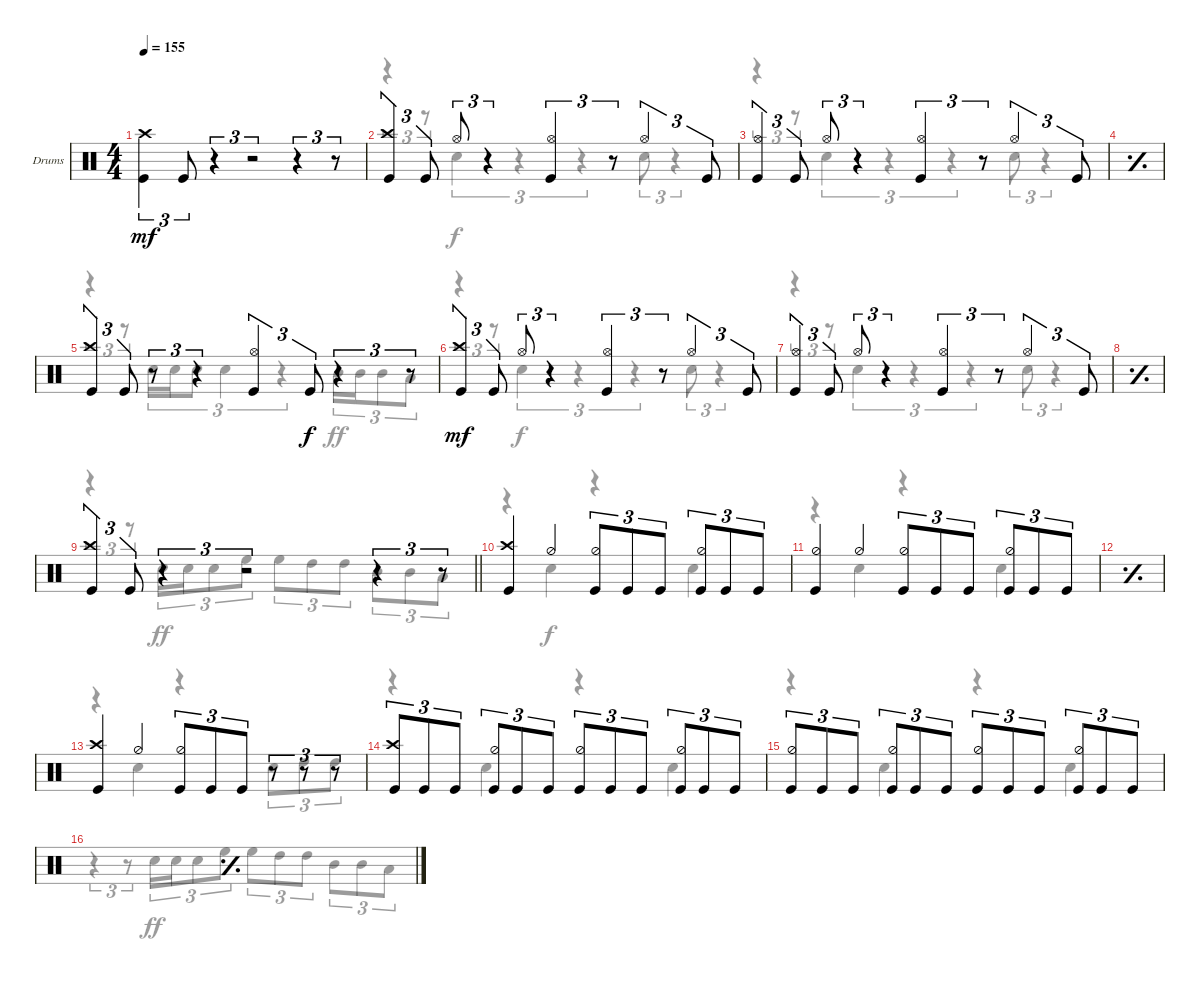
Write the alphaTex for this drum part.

\defaultSystemsLayout 4
\bracketExtendMode groupsimilarinstruments
\firstSystemTrackNameOrientation horizontal
\otherSystemsTrackNameOrientation horizontal
\track ("Drumkit" "Drums") {instrument percussion}
\staff {score}
\articulation defaults
\voice
\ts (4 4)
\tempo 155
\clef neutral
\ks c
("Kick (hit)" "Crash high (hit)").4{tu (3 2) dy mf} "Kick (hit)".8{tu (3 2)} r.4{tu (3 2)} r.2{tu (3 2)} r.4{tu (3 2)} r.8{tu (3 2)} |
("Kick (hit)" "Crash high (hit)").4{tu (3 2)} "Kick (hit)".8{tu (3 2)} "Hi-Hat (open)".8{tu (3 2)} r.4{tu (3 2)} ("Kick (hit)" "Hi-Hat (open)").4{tu (3 2)} r.8{tu (3 2)} "Hi-Hat (open)".4{tu (3 2)} "Kick (hit)".8{tu (3 2)} |
("Kick (hit)" "Hi-Hat (open)").4{tu (3 2)} "Kick (hit)".8{tu (3 2)} "Hi-Hat (open)".8{tu (3 2)} r.4{tu (3 2)} ("Kick (hit)" "Hi-Hat (open)").4{tu (3 2)} r.8{tu (3 2)} "Hi-Hat (open)".4{tu (3 2)} "Kick (hit)".8{tu (3 2)} |
\simile simple
|
\simile none
("Kick (hit)" "Crash high (hit)").4{tu (3 2)} "Kick (hit)".8{tu (3 2)} r.8{tu (3 2)} r.4{tu (3 2)} ("Kick (hit)" "Hi-Hat (open)").4{tu (3 2)} "Kick (hit)".8{tu (3 2) dy f} r.4{tu (3 2)} r.8{tu (3 2)} |
("Kick (hit)" "Crash high (hit)").4{tu (3 2) dy mf} "Kick (hit)".8{tu (3 2)} "Hi-Hat (open)".8{tu (3 2)} r.4{tu (3 2)} ("Kick (hit)" "Hi-Hat (open)").4{tu (3 2)} r.8{tu (3 2)} "Hi-Hat (open)".4{tu (3 2)} "Kick (hit)".8{tu (3 2)} |
("Kick (hit)" "Hi-Hat (open)").4{tu (3 2)} "Kick (hit)".8{tu (3 2)} "Hi-Hat (open)".8{tu (3 2)} r.4{tu (3 2)} ("Kick (hit)" "Hi-Hat (open)").4{tu (3 2)} r.8{tu (3 2)} "Hi-Hat (open)".4{tu (3 2)} "Kick (hit)".8{tu (3 2)} |
\simile simple
|
\simile none
\barLineRight lightlight
("Kick (hit)" "Crash high (hit)").4{tu (3 2)} "Kick (hit)".8{tu (3 2)} r.4{tu (3 2)} r.2{tu (3 2)} r.4{tu (3 2)} r.8{tu (3 2)} |
("Kick (hit)" "Crash high (hit)").4 "Hi-Hat (half)".4 ("Kick (hit)" "Hi-Hat (half)").8{tu (3 2)} "Kick (hit)".8{tu (3 2)} "Kick (hit)".8{tu (3 2)} ("Kick (hit)" "Hi-Hat (half)").8{tu (3 2)} "Kick (hit)".8{tu (3 2)} "Kick (hit)".8{tu (3 2)} |
("Kick (hit)" "Hi-Hat (half)").4 "Hi-Hat (half)".4 ("Kick (hit)" "Hi-Hat (half)").8{tu (3 2)} "Kick (hit)".8{tu (3 2)} "Kick (hit)".8{tu (3 2)} ("Kick (hit)" "Hi-Hat (half)").8{tu (3 2)} "Kick (hit)".8{tu (3 2)} "Kick (hit)".8{tu (3 2)} |
\simile simple
|
\simile none
("Kick (hit)" "Crash high (hit)").4 "Hi-Hat (half)".4 ("Kick (hit)" "Hi-Hat (half)").8{tu (3 2)} "Kick (hit)".8{tu (3 2)} "Kick (hit)".8{tu (3 2)} r.8{tu (3 2)} r.8{tu (3 2)} r.8{tu (3 2)} |
("Kick (hit)" "Crash high (hit)").8{tu (3 2)} "Kick (hit)".8{tu (3 2)} "Kick (hit)".8{tu (3 2)} ("Kick (hit)" "Hi-Hat (half)").8{tu (3 2)} "Kick (hit)".8{tu (3 2)} "Kick (hit)".8{tu (3 2)} ("Kick (hit)" "Hi-Hat (half)").8{tu (3 2)} "Kick (hit)".8{tu (3 2)} "Kick (hit)".8{tu (3 2)} ("Kick (hit)" "Hi-Hat (half)").8{tu (3 2)} "Kick (hit)".8{tu (3 2)} "Kick (hit)".8{tu (3 2)} |
("Kick (hit)" "Hi-Hat (half)").8{tu (3 2)} "Kick (hit)".8{tu (3 2)} "Kick (hit)".8{tu (3 2)} ("Kick (hit)" "Hi-Hat (half)").8{tu (3 2)} "Kick (hit)".8{tu (3 2)} "Kick (hit)".8{tu (3 2)} ("Kick (hit)" "Hi-Hat (half)").8{tu (3 2)} "Kick (hit)".8{tu (3 2)} "Kick (hit)".8{tu (3 2)} ("Kick (hit)" "Hi-Hat (half)").8{tu (3 2)} "Kick (hit)".8{tu (3 2)} "Kick (hit)".8{tu (3 2)} |
\simile simple
\voice
\clef neutral
\ottava regular
\simile none
\ks c
r.4{tu (3 2) dy f} r.8{tu (3 2)} "Snare (hit) 2".16{tu (3 2) dy ff} "Snare (hit) 2".16{tu (3 2)} "Snare (hit) 2".8{tu (3 2)} "High Floor Tom (hit)".8{tu (3 2)} "High Floor Tom (hit)".8{tu (3 2)} "High Tom (hit)".8{tu (3 2)} "High Tom (hit)".8{tu (3 2)} "Mid Tom (hit)".8{tu (3 2)} "Mid Tom (hit)".8{tu (3 2)} "Low Tom (hit)".8{tu (3 2)} |
r.4{tu (3 2)} r.8{tu (3 2)} "Snare (hit) 2".4{tu (3 2) dy f} r.4{tu (3 2)} r.4{tu (3 2)} "Snare (hit) 2".8{tu (3 2)} r.4{tu (3 2)} |
r.4{tu (3 2)} r.8{tu (3 2)} "Snare (hit) 2".4{tu (3 2)} r.4{tu (3 2)} r.4{tu (3 2)} "Snare (hit) 2".8{tu (3 2)} r.4{tu (3 2)} |
\simile simple
|
\simile none
r.4{tu (3 2)} r.8{tu (3 2)} "Snare (hit) 2".16{tu (3 2)} "Snare (hit) 2".16{tu (3 2)} "Snare (hit) 2".8{tu (3 2)} "Snare (hit) 2".4{tu (3 2)} r.4{tu (3 2)} "Mid Tom (hit)".16{tu (3 2) dy ff} "Mid Tom (hit)".16{tu (3 2)} "Mid Tom (hit)".8{tu (3 2)} "Low Tom (hit)".8{tu (3 2)} |
r.4{tu (3 2)} r.8{tu (3 2)} "Snare (hit) 2".4{tu (3 2) dy f} r.4{tu (3 2)} r.4{tu (3 2)} "Snare (hit) 2".8{tu (3 2)} r.4{tu (3 2)} |
r.4{tu (3 2)} r.8{tu (3 2)} "Snare (hit) 2".4{tu (3 2)} r.4{tu (3 2)} r.4{tu (3 2)} "Snare (hit) 2".8{tu (3 2)} r.4{tu (3 2)} |
\simile simple
|
\simile none
\barLineRight lightlight
r.4{tu (3 2)} r.8{tu (3 2)} "Snare (hit) 2".16{tu (3 2) dy ff} "Snare (hit) 2".16{tu (3 2)} "Snare (hit) 2".8{tu (3 2)} "High Floor Tom (hit)".8{tu (3 2)} "High Floor Tom (hit)".8{tu (3 2)} "High Tom (hit)".8{tu (3 2)} "High Tom (hit)".8{tu (3 2)} "Mid Tom (hit)".8{tu (3 2)} "Mid Tom (hit)".8{tu (3 2)} "Low Tom (hit)".8{tu (3 2)} |
r.4 "Snare (hit) 2".4{dy f} r.4 "Snare (hit) 2".4 |
r.4 "Snare (hit) 2".4 r.4 "Snare (hit) 2".4 |
\simile simple
|
\simile none
r.4 "Snare (hit) 2".4 r.4 "Snare (hit) 2".8{tu (3 2)} "High Tom (hit)".8{tu (3 2)} "High Tom (hit)".8{tu (3 2)} |
r.4 "Snare (hit) 2".4 r.4 "Snare (hit) 2".4 |
r.4 "Snare (hit) 2".4 r.4 "Snare (hit) 2".4 |
\simile simple
